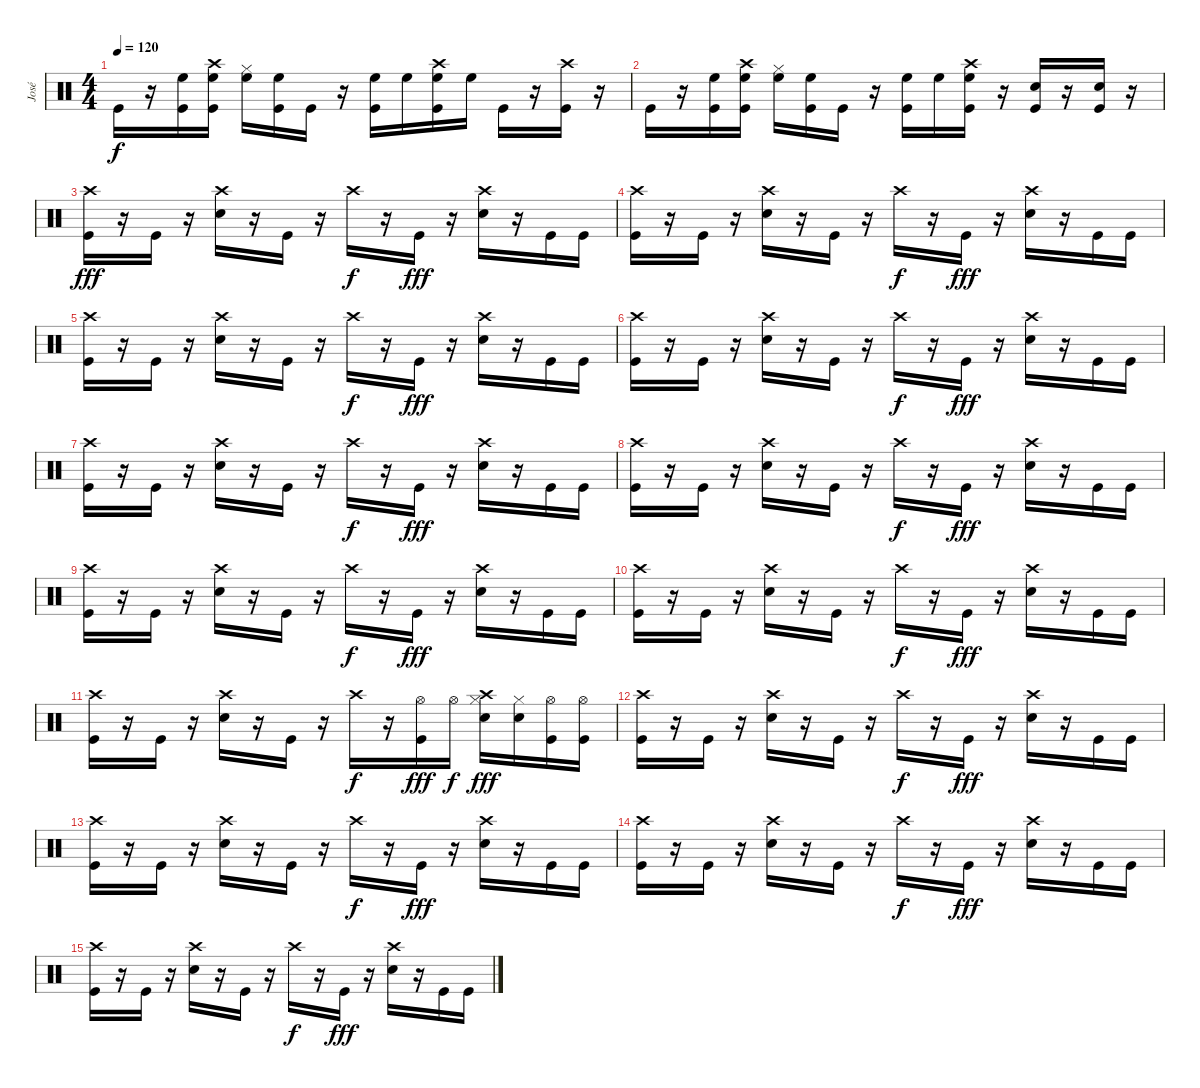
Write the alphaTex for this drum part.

\track ("José" "José") {instrument percussion}
\staff {score}
\articulation defaults
\ts (4 4)
\tempo 120
\clef neutral
\ks c "Kick (hit)".16{dy f}
r.16 ("High Floor Tom (hit)" "Kick (hit)").16 ("Crash high (hit)" "High Floor Tom (hit)" "Kick (hit)").16 ("High Floor Tom (hit)" "Hi-Hat (closed)").16 ("High Floor Tom (hit)" "Kick (hit)").16 "Kick (hit)".16 r.16 ("High Floor Tom (hit)" "Kick (hit)").16 "High Floor Tom (hit)".16 ("Crash high (hit)" "High Floor Tom (hit)" "Kick (hit)").16 "High Floor Tom (hit)".16 "Kick (hit)".16 r.16 ("Crash high (hit)" "Kick (hit)").16 r.16 |
"Kick (hit)".16 r.16 ("High Floor Tom (hit)" "Kick (hit)").16 ("Crash high (hit)" "High Floor Tom (hit)" "Kick (hit)").16 ("High Floor Tom (hit)" "Hi-Hat (closed)").16 ("High Floor Tom (hit)" "Kick (hit)").16 "Kick (hit)".16 r.16 ("High Floor Tom (hit)" "Kick (hit)").16 "High Floor Tom (hit)".16 ("Crash high (hit)" "High Floor Tom (hit)" "Kick (hit)").16 r.16 ("Electric Snare (hit)" "Kick (hit)").16 r.16 ("Electric Snare (hit)" "Kick (hit)").16 r.16 |
("Crash high (hit)" "Kick (hit)").16{dy fff} r.16 "Kick (hit)".16 r.16 ("Crash high (hit)" "Electric Snare (hit)").16 r.16 "Kick (hit)".16 r.16 "Crash high (hit)".16{dy f} r.16 "Kick (hit)".16{dy fff} r.16 ("Crash high (hit)" "Electric Snare (hit)").16 r.16 "Kick (hit)".16 "Kick (hit)".16 |
("Crash high (hit)" "Kick (hit)").16 r.16 "Kick (hit)".16 r.16 ("Crash high (hit)" "Electric Snare (hit)").16 r.16 "Kick (hit)".16 r.16 "Crash high (hit)".16{dy f} r.16 "Kick (hit)".16{dy fff} r.16 ("Crash high (hit)" "Electric Snare (hit)").16 r.16 "Kick (hit)".16 "Kick (hit)".16 |
("Crash high (hit)" "Kick (hit)").16 r.16 "Kick (hit)".16 r.16 ("Crash high (hit)" "Electric Snare (hit)").16 r.16 "Kick (hit)".16 r.16 "Crash high (hit)".16{dy f} r.16 "Kick (hit)".16{dy fff} r.16 ("Crash high (hit)" "Electric Snare (hit)").16 r.16 "Kick (hit)".16 "Kick (hit)".16 |
("Crash high (hit)" "Kick (hit)").16 r.16 "Kick (hit)".16 r.16 ("Crash high (hit)" "Electric Snare (hit)").16 r.16 "Kick (hit)".16 r.16 "Crash high (hit)".16{dy f} r.16 "Kick (hit)".16{dy fff} r.16 ("Crash high (hit)" "Electric Snare (hit)").16 r.16 "Kick (hit)".16 "Kick (hit)".16 |
("Crash high (hit)" "Kick (hit)").16 r.16 "Kick (hit)".16 r.16 ("Crash high (hit)" "Electric Snare (hit)").16 r.16 "Kick (hit)".16 r.16 "Crash high (hit)".16{dy f} r.16 "Kick (hit)".16{dy fff} r.16 ("Crash high (hit)" "Electric Snare (hit)").16 r.16 "Kick (hit)".16 "Kick (hit)".16 |
("Crash high (hit)" "Kick (hit)").16 r.16 "Kick (hit)".16 r.16 ("Crash high (hit)" "Electric Snare (hit)").16 r.16 "Kick (hit)".16 r.16 "Crash high (hit)".16{dy f} r.16 "Kick (hit)".16{dy fff} r.16 ("Crash high (hit)" "Electric Snare (hit)").16 r.16 "Kick (hit)".16 "Kick (hit)".16 |
("Crash high (hit)" "Kick (hit)").16 r.16 "Kick (hit)".16 r.16 ("Crash high (hit)" "Electric Snare (hit)").16 r.16 "Kick (hit)".16 r.16 "Crash high (hit)".16{dy f} r.16 "Kick (hit)".16{dy fff} r.16 ("Crash high (hit)" "Electric Snare (hit)").16 r.16 "Kick (hit)".16 "Kick (hit)".16 |
("Crash high (hit)" "Kick (hit)").16 r.16 "Kick (hit)".16 r.16 ("Crash high (hit)" "Electric Snare (hit)").16 r.16 "Kick (hit)".16 r.16 "Crash high (hit)".16{dy f} r.16 "Kick (hit)".16{dy fff} r.16 ("Crash high (hit)" "Electric Snare (hit)").16 r.16 "Kick (hit)".16 "Kick (hit)".16 |
("Crash high (hit)" "Kick (hit)").16 r.16 "Kick (hit)".16 r.16 ("Crash high (hit)" "Electric Snare (hit)").16 r.16 "Kick (hit)".16 r.16 "Crash high (hit)".16{dy f} r.16 ("Hi-Hat (open)" "Kick (hit)").16{dy fff} "Hi-Hat (open)".16{dy f} ("Crash high (hit)" "Hi-Hat (closed)" "Electric Snare (hit)").16{dy fff} ("Hi-Hat (closed)" "Electric Snare (hit)").16 ("Hi-Hat (open)" "Kick (hit)").16 ("Hi-Hat (open)" "Kick (hit)").16 |
("Crash high (hit)" "Kick (hit)").16 r.16 "Kick (hit)".16 r.16 ("Crash high (hit)" "Electric Snare (hit)").16 r.16 "Kick (hit)".16 r.16 "Crash high (hit)".16{dy f} r.16 "Kick (hit)".16{dy fff} r.16 ("Crash high (hit)" "Electric Snare (hit)").16 r.16 "Kick (hit)".16 "Kick (hit)".16 |
("Crash high (hit)" "Kick (hit)").16 r.16 "Kick (hit)".16 r.16 ("Crash high (hit)" "Electric Snare (hit)").16 r.16 "Kick (hit)".16 r.16 "Crash high (hit)".16{dy f} r.16 "Kick (hit)".16{dy fff} r.16 ("Crash high (hit)" "Electric Snare (hit)").16 r.16 "Kick (hit)".16 "Kick (hit)".16 |
("Crash high (hit)" "Kick (hit)").16 r.16 "Kick (hit)".16 r.16 ("Crash high (hit)" "Electric Snare (hit)").16 r.16 "Kick (hit)".16 r.16 "Crash high (hit)".16{dy f} r.16 "Kick (hit)".16{dy fff} r.16 ("Crash high (hit)" "Electric Snare (hit)").16 r.16 "Kick (hit)".16 "Kick (hit)".16 |
("Crash high (hit)" "Kick (hit)").16 r.16 "Kick (hit)".16 r.16 ("Crash high (hit)" "Electric Snare (hit)").16 r.16 "Kick (hit)".16 r.16 "Crash high (hit)".16{dy f} r.16 "Kick (hit)".16{dy fff} r.16 ("Crash high (hit)" "Electric Snare (hit)").16 r.16 "Kick (hit)".16 "Kick (hit)".16
